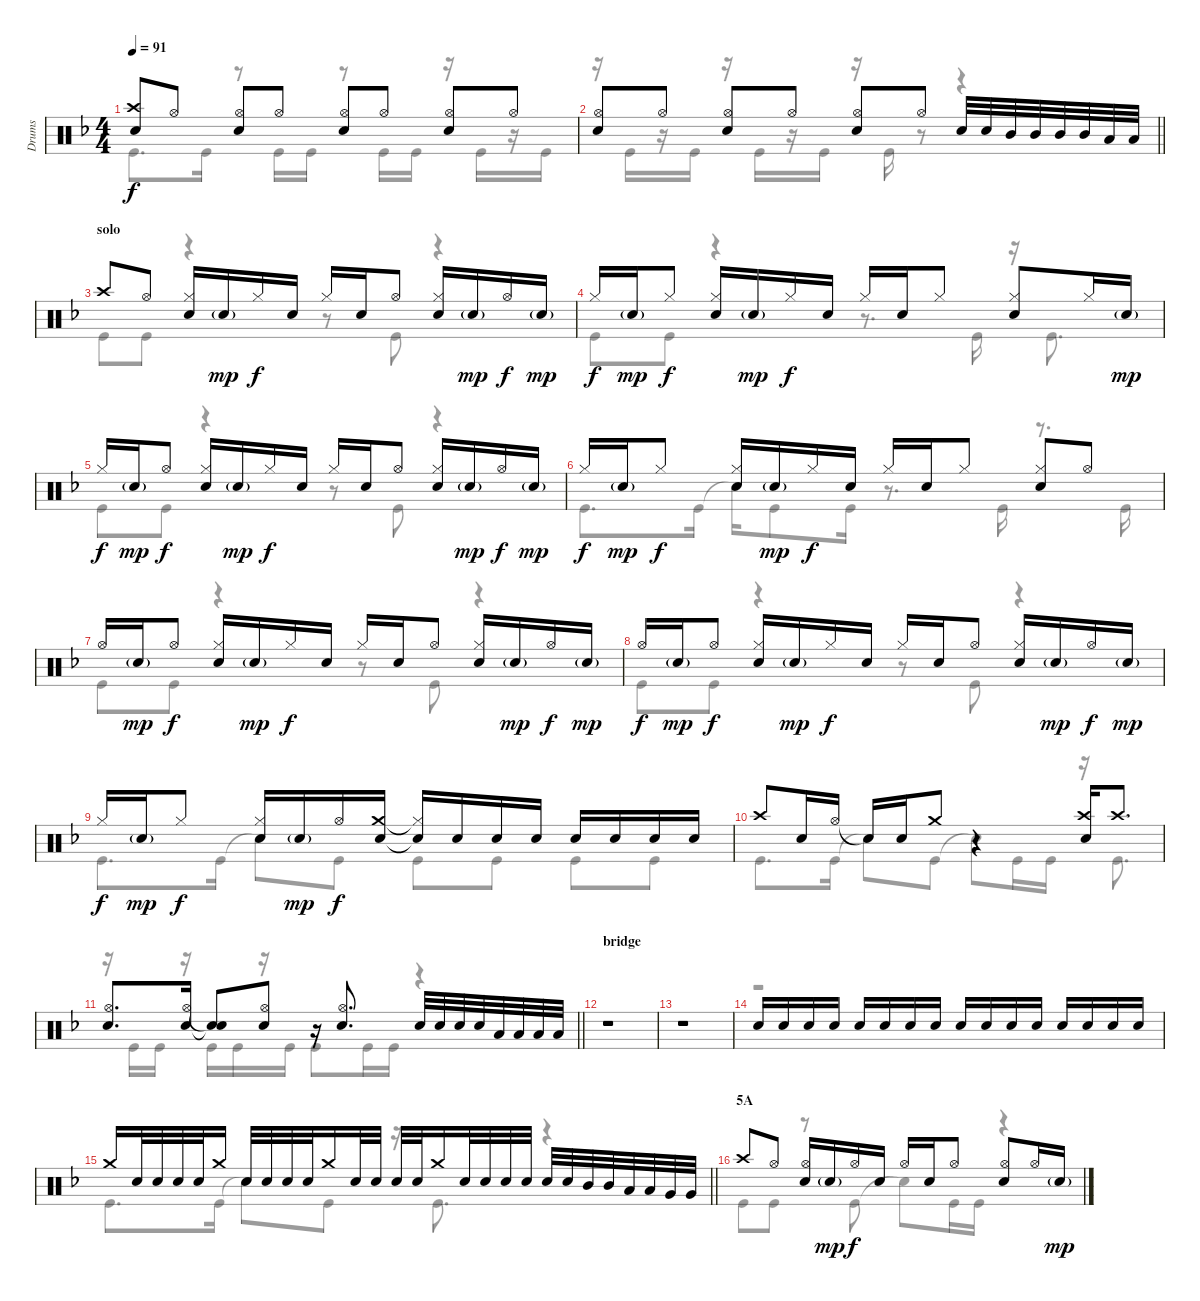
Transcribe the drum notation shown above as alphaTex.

\track ("Drums" "Drums") {instrument percussion}
\staff {score}
\articulation defaults
\voice
\ts (4 4)
\tempo 91
\clef neutral
\ks f
("Crash high (hit)" "Snare (hit) 2").8{dy f} "Hi-Hat (open)".8 ("Hi-Hat (open)" "Snare (hit) 2").8 "Hi-Hat (open)".8 ("Hi-Hat (open)" "Snare (hit) 2").8 "Hi-Hat (open)".8 ("Hi-Hat (open)" "Snare (hit) 2").8 "Hi-Hat (open)".8 |
\barLineRight lightlight
("Hi-Hat (open)" "Snare (hit) 2").8 "Hi-Hat (open)".8 ("Hi-Hat (open)" "Snare (hit) 2").8 "Hi-Hat (open)".8 ("Hi-Hat (open)" "Snare (hit) 2").8 "Hi-Hat (open)".8 "Snare (hit) 2".32 "Snare (hit) 2".32 "Mid Tom (hit)".32 "Mid Tom (hit)".32 "Mid Tom (hit)".32 "Mid Tom (hit)".32 "Low Tom (hit)".32 "Low Tom (hit)".32 |
\section ("" "solo")
"Crash high (hit)".8 "Hi-Hat (open)".8 ("Hi-Hat (closed)" "Snare (hit) 2").16 "Snare (hit) 2"{g}.16{dy mp} "Hi-Hat (closed)".16{dy f} "Snare (hit) 2".16 "Hi-Hat (closed)".16 "Snare (hit) 2".16 "Hi-Hat (open)".8 ("Hi-Hat (closed)" "Snare (hit) 2").16 "Snare (hit) 2"{g}.16{dy mp} "Hi-Hat (open)".16{dy f} "Snare (hit) 2"{g}.16{dy mp} |
"Hi-Hat (closed)".16{dy f} "Snare (hit) 2"{g}.16{dy mp} "Hi-Hat (closed)".8{dy f} ("Hi-Hat (closed)" "Snare (hit) 2").16 "Snare (hit) 2"{g}.16{dy mp} "Hi-Hat (closed)".16{dy f} "Snare (hit) 2".16 "Hi-Hat (closed)".16 "Snare (hit) 2".16 "Hi-Hat (closed)".8 ("Hi-Hat (closed)" "Snare (hit) 2").8 "Hi-Hat (closed)".16 "Snare (hit) 2"{g}.16{dy mp} |
"Hi-Hat (closed)".16{dy f} "Snare (hit) 2"{g}.16{dy mp} "Hi-Hat (open)".8{dy f} ("Hi-Hat (closed)" "Snare (hit) 2").16 "Snare (hit) 2"{g}.16{dy mp} "Hi-Hat (closed)".16{dy f} "Snare (hit) 2".16 "Hi-Hat (closed)".16 "Snare (hit) 2".16 "Hi-Hat (open)".8 ("Hi-Hat (closed)" "Snare (hit) 2").16 "Snare (hit) 2"{g}.16{dy mp} "Hi-Hat (open)".16{dy f} "Snare (hit) 2"{g}.16{dy mp} |
"Hi-Hat (closed)".16{dy f} "Snare (hit) 2"{g}.16{dy mp} "Hi-Hat (closed)".8{dy f} ("Hi-Hat (closed)" "Snare (hit) 2").16 "Snare (hit) 2"{g}.16{dy mp} "Hi-Hat (closed)".16{dy f} "Snare (hit) 2".16 "Hi-Hat (closed)".16 "Snare (hit) 2".16 "Hi-Hat (closed)".8 ("Hi-Hat (closed)" "Snare (hit) 2").8 "Hi-Hat (open)".8 |
"Hi-Hat (open)".16 "Snare (hit) 2"{g}.16{dy mp} "Hi-Hat (open)".8{dy f} ("Hi-Hat (closed)" "Snare (hit) 2").16 "Snare (hit) 2"{g}.16{dy mp} "Hi-Hat (closed)".16{dy f} "Snare (hit) 2".16 "Hi-Hat (closed)".16 "Snare (hit) 2".16 "Hi-Hat (open)".8 ("Hi-Hat (closed)" "Snare (hit) 2").16 "Snare (hit) 2"{g}.16{dy mp} "Hi-Hat (open)".16{dy f} "Snare (hit) 2"{g}.16{dy mp} |
"Hi-Hat (open)".16{dy f} "Snare (hit) 2"{g}.16{dy mp} "Hi-Hat (open)".8{dy f} ("Hi-Hat (closed)" "Snare (hit) 2").16 "Snare (hit) 2"{g}.16{dy mp} "Hi-Hat (closed)".16{dy f} "Snare (hit) 2".16 "Hi-Hat (closed)".16 "Snare (hit) 2".16 "Hi-Hat (open)".8 ("Hi-Hat (closed)" "Snare (hit) 2").16 "Snare (hit) 2"{g}.16{dy mp} "Hi-Hat (open)".16{dy f} "Snare (hit) 2"{g}.16{dy mp} |
"Hi-Hat (closed)".16{dy f} "Snare (hit) 2"{g}.16{dy mp} "Hi-Hat (closed)".8{dy f} ("Hi-Hat (closed)" "Snare (hit) 2").16 "Snare (hit) 2"{g}.16{dy mp} "Hi-Hat (open)".16{dy f} ("Crash medium (hit)" "Snare (hit) 2").16 ("Hi-Hat (closed)"{t} "Snare (hit)"{t}).16 "Snare (hit) 2".16 "Snare (hit) 2".16 "Snare (hit) 2".16 "Snare (hit) 2".16 "Snare (hit) 2".16 "Snare (hit) 2".16 "Snare (hit) 2".16 |
"Crash high (hit)".8 "Snare (hit) 2".16 "Hi-Hat (open)".16 "Snare (hit)"{t}.16 "Snare (hit) 2".16 "Crash medium (hit)".8 r.4 ("Crash high (hit)" "Snare (hit) 2").16 "Crash high (hit)".8{d} |
\barLineRight lightlight
("Hi-Hat (open)" "Snare (hit) 2").8{d} ("Hi-Hat (open)" "Snare (hit) 2").16 ("Snare (hit)"{t} "Snare (hit)"{t}).8 ("Hi-Hat (open)" "Snare (hit) 2").8 r.16 ("Hi-Hat (open)" "Snare (hit) 2").8{d} "Snare (hit) 2".32 "Snare (hit) 2".32 "Snare (hit) 2".32 "Snare (hit) 2".32 "Low Tom (hit)".32 "Low Tom (hit)".32 "Low Tom (hit)".32 "Low Tom (hit)".32 |
\section ("" "bridge")
r.1 |
r.1 |
"Snare (hit) 2".16 "Snare (hit) 2".16 "Snare (hit) 2".16 "Snare (hit) 2".16 "Snare (hit) 2".16 "Snare (hit) 2".16 "Snare (hit) 2".16 "Snare (hit) 2".16 "Snare (hit) 2".16 "Snare (hit) 2".16 "Snare (hit) 2".16 "Snare (hit) 2".16 "Snare (hit) 2".16 "Snare (hit) 2".16 "Snare (hit) 2".16 "Snare (hit) 2".16 |
\barLineRight lightlight "Crash medium (hit)".16 "Snare (hit) 2".32 "Snare (hit) 2".32 "Snare (hit) 2".32 "Snare (hit) 2".32 "Crash medium (hit)".16 "Snare (hit) 2".32 "Snare (hit) 2".32 "Snare (hit) 2".32 "Snare (hit) 2".32 "Crash medium (hit)".16 "Snare (hit) 2".32 "Snare (hit) 2".32 "Snare (hit) 2".32 "Snare (hit) 2".32 "Crash medium (hit)".16 "Snare (hit) 2".32 "Snare (hit) 2".32 "Snare (hit) 2".32 "Snare (hit) 2".32 "Snare (hit) 2".32 "Snare (hit) 2".32 "Mid Tom (hit)".32 "Mid Tom (hit)".32 "Low Tom (hit)".32 "Low Tom (hit)".32 "Very Low Tom (hit)".32 "Very Low Tom (hit)".32
|
\section ("" "5A")
"Crash high (hit)".8 "Hi-Hat (open)".8 ("Hi-Hat (open)" "Snare (hit) 2").16 "Snare (hit) 2"{g}.16{dy mp} "Hi-Hat (open)".16{dy f} "Snare (hit) 2".16 "Hi-Hat (open)".16 "Snare (hit) 2".16 "Hi-Hat (open)".8 ("Hi-Hat (open)" "Snare (hit) 2").8 "Hi-Hat (open)".16 "Snare (hit) 2"{g}.16{dy mp}
\voice
\clef neutral
\ottava regular
\simile none
\ks f "Kick (hit)".8{d dy f} "Kick (hit)".16
r.8 "Kick (hit)".16 "Kick (hit)".16 r.8 "Kick (hit)".16 "Kick (hit)".16 r.16 "Kick (hit)".16 r.16 "Kick (hit)".16 |
\barLineRight lightlight
r.16 "Kick (hit)".16 r.16 "Kick (hit)".16 r.16 "Kick (hit)".16 r.16 "Kick (hit)".16 r.16 "Kick (hit)".16 r.8 r.4 |
"Kick (hit)".8 "Kick (hit)".8 r.4 r.8 "Kick (hit)".8 r.4 |
"Kick (hit)".8 "Kick (hit)".8 r.4 r.8{d} "Kick (hit)".16 r.16 "Kick (hit)".8{d} |
"Kick (hit)".8 "Kick (hit)".8 r.4 r.8 "Kick (hit)".8 r.4 |
"Kick (hit)".8{d} "Kick (hit)".16 "Snare (hit)"{t}.16 "Kick (hit)".8 "Kick (hit)".16 r.8{d} "Kick (hit)".16 r.8{d} "Kick (hit)".16 |
"Kick (hit)".8 "Kick (hit)".8 r.4 r.8 "Kick (hit)".8 r.4 |
"Kick (hit)".8 "Kick (hit)".8 r.4 r.8 "Kick (hit)".8 r.4 |
"Kick (hit)".8{d} "Kick (hit)".16 "Snare (hit)"{t}.8 "Kick (hit)".8 "Kick (hit)".8 "Kick (hit)".8 "Kick (hit)".8 "Kick (hit)".8 |
"Kick (hit)".8{d} "Kick (hit)".16 "Snare (hit)"{t}.8 "Kick (hit)".8 "Snare (hit)"{t}.8 "Kick (hit)".16 "Kick (hit)".16 r.16 "Kick (hit)".8{d} |
\barLineRight lightlight
r.16 "Kick (hit)".16 "Kick (hit)".16 r.16 "Kick (hit)".16 "Kick (hit)".16 r.16 "Kick (hit)".16 "Kick (hit)".8 "Kick (hit)".16 "Kick (hit)".16 r.4 |
r.1 |
r.1 |
r.1 |
\barLineRight lightlight "Kick (hit)".8{d} "Kick (hit)".16 "Snare (hit)"{t}.8 "Kick (hit)".8
r.16 "Kick (hit)".8{d} r.4 |
"Kick (hit)".8 "Kick (hit)".8 r.8 "Kick (hit)".8 "Snare (hit)"{t}.8 "Kick (hit)".16 "Kick (hit)".16 r.4
